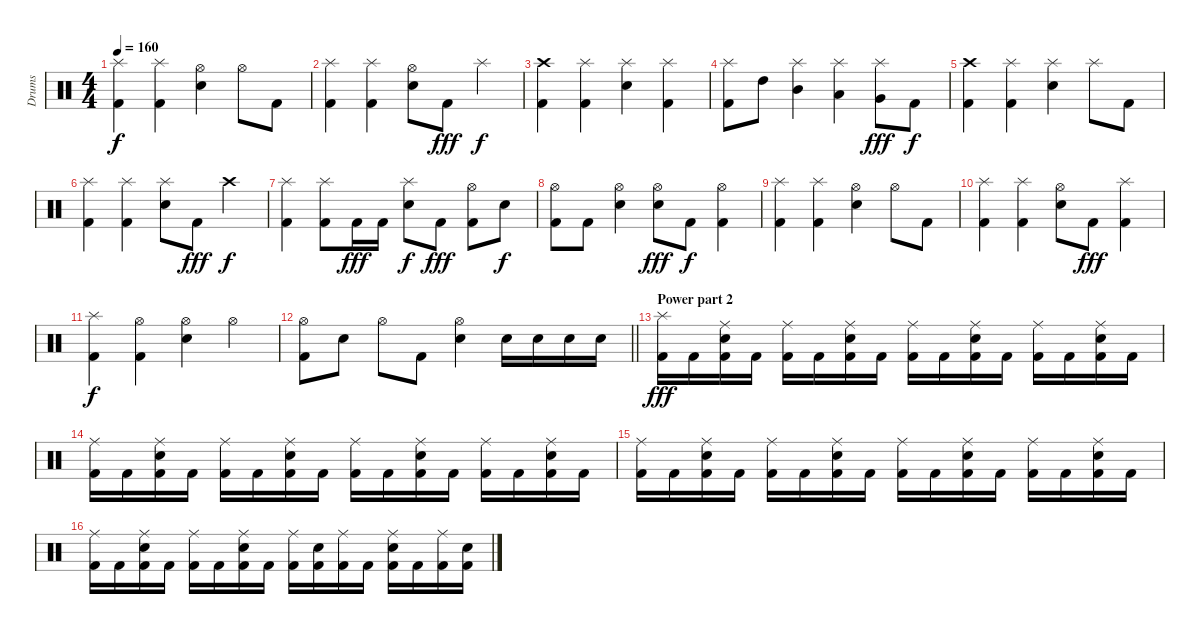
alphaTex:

\track ("Drums" "Drums") {instrument percussion}
\staff {score}
\articulation defaults
\ts (4 4)
\tempo 160
\clef neutral
\ks c
("Splash (hit)" "Kick (hit) 2").4{dy f} ("Splash (hit)" "Kick (hit) 2").4 ("Hi-Hat (open)" "Electric Snare (hit)").4 "Hi-Hat (open)".8 "Kick (hit) 2".8 |
("Splash (hit)" "Kick (hit) 2").4 ("Splash (hit)" "Kick (hit) 2").4 ("Hi-Hat (open)" "Electric Snare (hit)").8 "Kick (hit) 2".8{dy fff} "Splash (hit)".4{dy f} |
("Crash high (hit)" "Kick (hit) 2").4 ("Splash (hit)" "Kick (hit) 2").4 ("Splash (hit)" "Electric Snare (hit)").4 ("Splash (hit)" "Kick (hit) 2").4 |
("Splash (hit)" "Kick (hit) 2").8 "High Tom (hit)".8 ("Splash (hit)" "Mid Tom (hit)").4 ("Splash (hit)" "Low Tom (hit)").4 ("Splash (hit)" "Very Low Tom (hit)").8{dy fff} "Kick (hit) 2".8{dy f} |
("Crash high (hit)" "Kick (hit) 2").4 ("Splash (hit)" "Kick (hit) 2").4 ("Splash (hit)" "Electric Snare (hit)").4 "Splash (hit)".8 "Kick (hit) 2".8 |
("Splash (hit)" "Kick (hit) 2").4 ("Splash (hit)" "Kick (hit) 2").4 ("Splash (hit)" "Electric Snare (hit)").8 "Kick (hit) 2".8{dy fff} "Crash high (hit)".4{dy f} |
("Splash (hit)" "Kick (hit) 2").4 ("Splash (hit)" "Kick (hit) 2").8 "Kick (hit) 2".16{dy fff} "Kick (hit) 2".16 ("Splash (hit)" "Electric Snare (hit)").8{dy f} "Kick (hit) 2".8{dy fff} ("Hi-Hat (open)" "Kick (hit) 2").8 "Electric Snare (hit)".8{dy f} |
("Hi-Hat (open)" "Kick (hit) 2").8 "Kick (hit) 2".8 ("Hi-Hat (open)" "Electric Snare (hit)").4 ("Hi-Hat (open)" "Electric Snare (hit)").8{dy fff} "Kick (hit) 2".8{dy f} ("Hi-Hat (open)" "Kick (hit) 2").4 |
("Splash (hit)" "Kick (hit) 2").4 ("Splash (hit)" "Kick (hit) 2").4 ("Hi-Hat (open)" "Electric Snare (hit)").4 "Hi-Hat (open)".8 "Kick (hit) 2".8 |
("Splash (hit)" "Kick (hit) 2").4 ("Splash (hit)" "Kick (hit) 2").4 ("Hi-Hat (open)" "Electric Snare (hit)").8 "Kick (hit) 2".8{dy fff} ("Splash (hit)" "Kick (hit) 2").4 |
("Splash (hit)" "Kick (hit) 2").4{dy f} ("Hi-Hat (open)" "Kick (hit) 2").4 ("Hi-Hat (open)" "Electric Snare (hit)").4 "Hi-Hat (open)".4 |
\barLineRight lightlight
("Hi-Hat (open)" "Kick (hit) 2").8 "Electric Snare (hit)".8 "Hi-Hat (open)".8 "Kick (hit) 2".8 ("Hi-Hat (open)" "Electric Snare (hit)").4 "Electric Snare (hit)".16 "Electric Snare (hit)".16 "Electric Snare (hit)".16 "Electric Snare (hit)".16 |
\section ("" "Power part 2")
("Splash (hit)" "Kick (hit) 2").16{dy fff} "Kick (hit) 2".16 ("Ride (middle)" "Electric Snare (hit)" "Kick (hit) 2").16 "Kick (hit) 2".16 ("Ride (middle)" "Kick (hit) 2").16 "Kick (hit) 2".16 ("Ride (middle)" "Electric Snare (hit)" "Kick (hit) 2").16 "Kick (hit) 2".16 ("Ride (middle)" "Kick (hit) 2").16 "Kick (hit) 2".16 ("Ride (middle)" "Electric Snare (hit)" "Kick (hit) 2").16 "Kick (hit) 2".16 ("Ride (middle)" "Kick (hit) 2").16 "Kick (hit) 2".16 ("Ride (middle)" "Electric Snare (hit)" "Kick (hit) 2").16 "Kick (hit) 2".16 |
("Ride (middle)" "Kick (hit) 2").16 "Kick (hit) 2".16 ("Ride (middle)" "Electric Snare (hit)" "Kick (hit) 2").16 "Kick (hit) 2".16 ("Ride (middle)" "Kick (hit) 2").16 "Kick (hit) 2".16 ("Ride (middle)" "Electric Snare (hit)" "Kick (hit) 2").16 "Kick (hit) 2".16 ("Ride (middle)" "Kick (hit) 2").16 "Kick (hit) 2".16 ("Ride (middle)" "Electric Snare (hit)" "Kick (hit) 2").16 "Kick (hit) 2".16 ("Ride (middle)" "Kick (hit) 2").16 "Kick (hit) 2".16 ("Ride (middle)" "Electric Snare (hit)" "Kick (hit) 2").16 "Kick (hit) 2".16 |
("Ride (middle)" "Kick (hit) 2").16 "Kick (hit) 2".16 ("Ride (middle)" "Electric Snare (hit)" "Kick (hit) 2").16 "Kick (hit) 2".16 ("Ride (middle)" "Kick (hit) 2").16 "Kick (hit) 2".16 ("Ride (middle)" "Electric Snare (hit)" "Kick (hit) 2").16 "Kick (hit) 2".16 ("Ride (middle)" "Kick (hit) 2").16 "Kick (hit) 2".16 ("Ride (middle)" "Electric Snare (hit)" "Kick (hit) 2").16 "Kick (hit) 2".16 ("Ride (middle)" "Kick (hit) 2").16 "Kick (hit) 2".16 ("Ride (middle)" "Electric Snare (hit)" "Kick (hit) 2").16 "Kick (hit) 2".16 |
("Ride (middle)" "Kick (hit) 2").16 "Kick (hit) 2".16 ("Ride (middle)" "Electric Snare (hit)" "Kick (hit) 2").16 "Kick (hit) 2".16 ("Ride (middle)" "Kick (hit) 2").16 "Kick (hit) 2".16 ("Ride (middle)" "Electric Snare (hit)" "Kick (hit) 2").16 "Kick (hit) 2".16 ("Ride (middle)" "Kick (hit) 2").16 ("Electric Snare (hit)" "Kick (hit) 2").16 ("Ride (middle)" "Kick (hit) 2").16 "Kick (hit) 2".16 ("Ride (middle)" "Electric Snare (hit)" "Kick (hit) 2").16 "Kick (hit) 2".16 ("Ride (middle)" "Kick (hit) 2").16 ("Electric Snare (hit)" "Kick (hit) 2").16
